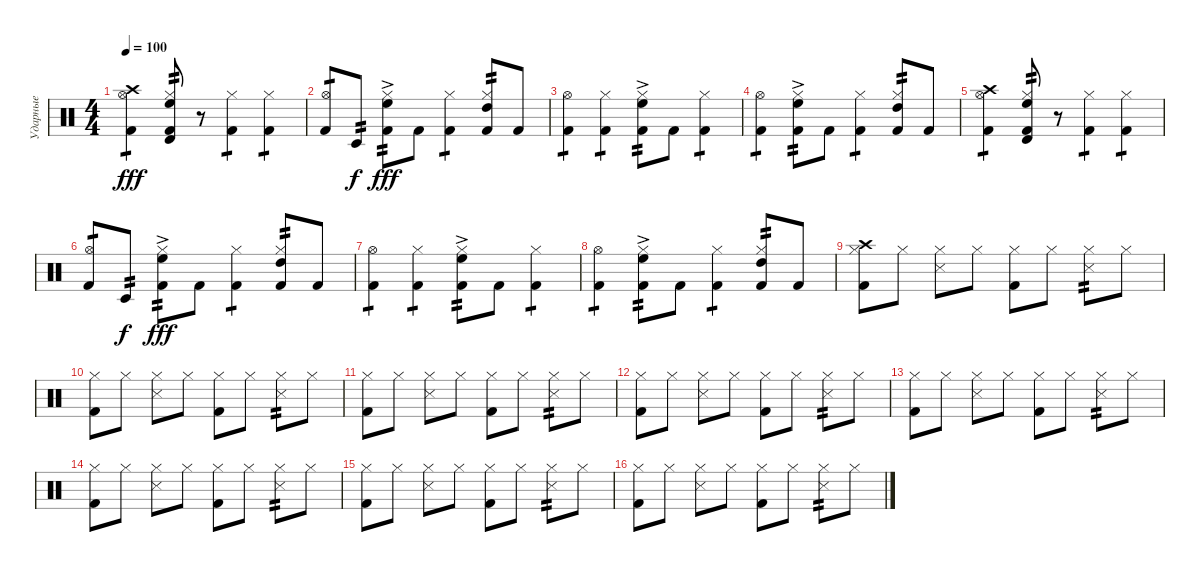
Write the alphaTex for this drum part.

\track ("Ударные" "Ударные") {instrument percussion}
\staff {score}
\articulation defaults
\ts (4 4)
\tempo 100
\clef neutral
\ks c
("Hi-Hat (open)" "Kick (hit) 2" "Crash high (hit)").4{tp 1 dy fff} ("Hi-Hat (closed)" "Kick (hit) 2" "High Floor Tom (hit)" "Timbale high (hit)").8{tp 2} r.8 ("Hi-Hat (closed)" "Kick (hit) 2").4{tp 1} ("Hi-Hat (closed)" "Kick (hit) 2").4{tp 1} |
("Hi-Hat (open)" "Kick (hit) 2").8{tp 1} "Timbale low (hit)".8{tp 2 dy f} ("Hi-Hat (closed)" "Kick (hit) 2" "High Floor Tom (hit)"{ac}).8{tp 2 dy fff} "Kick (hit) 2".8 ("Hi-Hat (closed)" "Kick (hit) 2").4{tp 1} ("Hi-Hat (closed)" "Kick (hit) 2" "High Tom (hit)").8{tp 2} "Kick (hit) 2".8 |
("Hi-Hat (open)" "Kick (hit) 2").4{tp 1} ("Hi-Hat (closed)" "Kick (hit) 2").4{tp 1} ("Hi-Hat (closed)" "Kick (hit) 2" "High Floor Tom (hit)"{ac}).8{tp 2} "Kick (hit) 2".8 ("Hi-Hat (closed)" "Kick (hit) 2").4{tp 1} |
("Hi-Hat (open)" "Kick (hit) 2").4{tp 1} ("Hi-Hat (closed)" "Kick (hit) 2" "High Floor Tom (hit)"{ac}).8{tp 2} "Kick (hit) 2".8 ("Hi-Hat (closed)" "Kick (hit) 2").4{tp 1} ("Hi-Hat (closed)" "Kick (hit) 2" "High Tom (hit)").8{tp 2} "Kick (hit) 2".8 |
("Hi-Hat (open)" "Kick (hit) 2" "Crash high (hit)").4{tp 1} ("Hi-Hat (closed)" "Kick (hit) 2" "High Floor Tom (hit)" "Timbale high (hit)").8{tp 2} r.8 ("Hi-Hat (closed)" "Kick (hit) 2").4{tp 1} ("Hi-Hat (closed)" "Kick (hit) 2").4{tp 1} |
("Hi-Hat (open)" "Kick (hit) 2").8{tp 1} "Timbale low (hit)".8{tp 2 dy f} ("Hi-Hat (closed)" "Kick (hit) 2" "High Floor Tom (hit)"{ac}).8{tp 2 dy fff} "Kick (hit) 2".8 ("Hi-Hat (closed)" "Kick (hit) 2").4{tp 1} ("Hi-Hat (closed)" "Kick (hit) 2" "High Tom (hit)").8{tp 2} "Kick (hit) 2".8 |
("Hi-Hat (open)" "Kick (hit) 2").4{tp 1} ("Hi-Hat (closed)" "Kick (hit) 2").4{tp 1} ("Hi-Hat (closed)" "Kick (hit) 2" "High Floor Tom (hit)"{ac}).8{tp 2} "Kick (hit) 2".8 ("Hi-Hat (closed)" "Kick (hit) 2").4{tp 1} |
("Hi-Hat (open)" "Kick (hit) 2").4{tp 1} ("Hi-Hat (closed)" "Kick (hit) 2" "High Floor Tom (hit)"{ac}).8{tp 2} "Kick (hit) 2".8 ("Hi-Hat (closed)" "Kick (hit) 2").4{tp 1} ("Hi-Hat (closed)" "Kick (hit) 2" "High Tom (hit)").8{tp 2} "Kick (hit) 2".8 |
("Hi-Hat (closed)" "Kick (hit) 2" "Crash high (hit)").8 "Hi-Hat (closed)".8 ("Hi-Hat (closed)" "Snare (side stick) 3").8 "Hi-Hat (closed)".8 ("Hi-Hat (closed)" "Kick (hit) 2").8 "Hi-Hat (closed)".8 ("Hi-Hat (closed)" "Snare (side stick) 3").8{tp 2} "Hi-Hat (closed)".8 |
("Hi-Hat (closed)" "Kick (hit) 2").8 "Hi-Hat (closed)".8 ("Hi-Hat (closed)" "Snare (side stick) 3").8 "Hi-Hat (closed)".8 ("Hi-Hat (closed)" "Kick (hit) 2").8 "Hi-Hat (closed)".8 ("Hi-Hat (closed)" "Snare (side stick) 3").8{tp 2} "Hi-Hat (closed)".8 |
("Hi-Hat (closed)" "Kick (hit) 2").8 "Hi-Hat (closed)".8 ("Hi-Hat (closed)" "Snare (side stick) 3").8 "Hi-Hat (closed)".8 ("Hi-Hat (closed)" "Kick (hit) 2").8 "Hi-Hat (closed)".8 ("Hi-Hat (closed)" "Snare (side stick) 3").8{tp 2} "Hi-Hat (closed)".8 |
("Hi-Hat (closed)" "Kick (hit) 2").8 "Hi-Hat (closed)".8 ("Hi-Hat (closed)" "Snare (side stick) 3").8 "Hi-Hat (closed)".8 ("Hi-Hat (closed)" "Kick (hit) 2").8 "Hi-Hat (closed)".8 ("Hi-Hat (closed)" "Snare (side stick) 3").8{tp 2} "Hi-Hat (closed)".8 |
("Hi-Hat (closed)" "Kick (hit) 2").8 "Hi-Hat (closed)".8 ("Hi-Hat (closed)" "Snare (side stick) 3").8 "Hi-Hat (closed)".8 ("Hi-Hat (closed)" "Kick (hit) 2").8 "Hi-Hat (closed)".8 ("Hi-Hat (closed)" "Snare (side stick) 3").8{tp 2} "Hi-Hat (closed)".8 |
("Hi-Hat (closed)" "Kick (hit) 2").8 "Hi-Hat (closed)".8 ("Hi-Hat (closed)" "Snare (side stick) 3").8 "Hi-Hat (closed)".8 ("Hi-Hat (closed)" "Kick (hit) 2").8 "Hi-Hat (closed)".8 ("Hi-Hat (closed)" "Snare (side stick) 3").8{tp 2} "Hi-Hat (closed)".8 |
("Hi-Hat (closed)" "Kick (hit) 2").8 "Hi-Hat (closed)".8 ("Hi-Hat (closed)" "Snare (side stick) 3").8 "Hi-Hat (closed)".8 ("Hi-Hat (closed)" "Kick (hit) 2").8 "Hi-Hat (closed)".8 ("Hi-Hat (closed)" "Snare (side stick) 3").8{tp 2} "Hi-Hat (closed)".8 |
("Hi-Hat (closed)" "Kick (hit) 2").8 "Hi-Hat (closed)".8 ("Hi-Hat (closed)" "Snare (side stick) 3").8 "Hi-Hat (closed)".8 ("Hi-Hat (closed)" "Kick (hit) 2").8 "Hi-Hat (closed)".8 ("Hi-Hat (closed)" "Snare (side stick) 3").8{tp 2} "Hi-Hat (closed)".8
